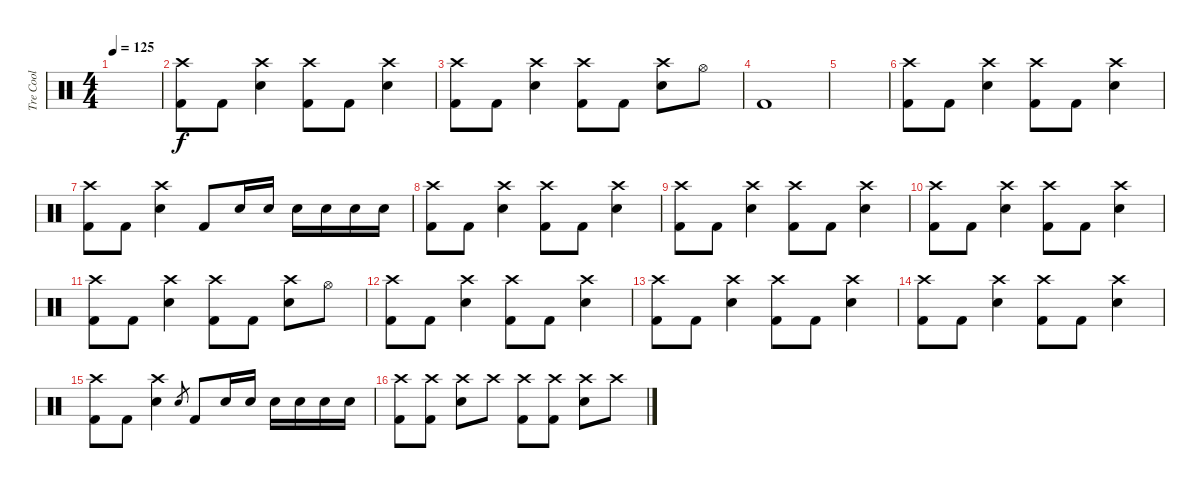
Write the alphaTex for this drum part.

\track ("Tre Cool" "Tre Cool") {instrument percussion}
\staff {score}
\articulation defaults
\ts (4 4)
\tempo 125
\clef neutral
\ks c
|
("Crash high (hit)" "Kick (hit) 2").8 "Kick (hit) 2".8 ("Crash high (hit)" "Electric Snare (hit)").4 ("Crash high (hit)" "Kick (hit) 2").8 "Kick (hit) 2".8 ("Crash high (hit)" "Electric Snare (hit)").4 |
("Crash high (hit)" "Kick (hit) 2").8 "Kick (hit) 2".8 ("Crash high (hit)" "Electric Snare (hit)").4 ("Crash high (hit)" "Kick (hit) 2").8 "Kick (hit) 2".8 ("Crash high (hit)" "Electric Snare (hit)").8 "Hi-Hat (open)".8 |
"Kick (hit) 2".1 |
|
("Crash high (hit)" "Kick (hit) 2").8 "Kick (hit) 2".8 ("Crash high (hit)" "Electric Snare (hit)").4 ("Crash high (hit)" "Kick (hit) 2").8 "Kick (hit) 2".8 ("Crash high (hit)" "Electric Snare (hit)").4 |
("Crash high (hit)" "Kick (hit) 2").8 "Kick (hit) 2".8 ("Crash high (hit)" "Electric Snare (hit)").4 "Kick (hit) 2".8 "Electric Snare (hit)".16 "Electric Snare (hit)".16 "Electric Snare (hit)".16 "Electric Snare (hit)".16 "Electric Snare (hit)".16 "Electric Snare (hit)".16 |
("Crash high (hit)" "Kick (hit) 2").8 "Kick (hit) 2".8 ("Crash high (hit)" "Electric Snare (hit)").4 ("Crash high (hit)" "Kick (hit) 2").8 "Kick (hit) 2".8 ("Crash high (hit)" "Electric Snare (hit)").4 |
("Crash high (hit)" "Kick (hit) 2").8 "Kick (hit) 2".8 ("Crash high (hit)" "Electric Snare (hit)").4 ("Crash high (hit)" "Kick (hit) 2").8 "Kick (hit) 2".8 ("Crash high (hit)" "Electric Snare (hit)").4 |
("Crash high (hit)" "Kick (hit) 2").8 "Kick (hit) 2".8 ("Crash high (hit)" "Electric Snare (hit)").4 ("Crash high (hit)" "Kick (hit) 2").8 "Kick (hit) 2".8 ("Crash high (hit)" "Electric Snare (hit)").4 |
("Crash high (hit)" "Kick (hit) 2").8 "Kick (hit) 2".8 ("Crash high (hit)" "Electric Snare (hit)").4 ("Crash high (hit)" "Kick (hit) 2").8 "Kick (hit) 2".8 ("Crash high (hit)" "Electric Snare (hit)").8 "Hi-Hat (open)".8 |
("Crash high (hit)" "Kick (hit) 2").8 "Kick (hit) 2".8 ("Crash high (hit)" "Electric Snare (hit)").4 ("Crash high (hit)" "Kick (hit) 2").8 "Kick (hit) 2".8 ("Crash high (hit)" "Electric Snare (hit)").4 |
("Crash high (hit)" "Kick (hit) 2").8 "Kick (hit) 2".8 ("Crash high (hit)" "Electric Snare (hit)").4 ("Crash high (hit)" "Kick (hit) 2").8 "Kick (hit) 2".8 ("Crash high (hit)" "Electric Snare (hit)").4 |
("Crash high (hit)" "Kick (hit) 2").8 "Kick (hit) 2".8 ("Crash high (hit)" "Electric Snare (hit)").4 ("Crash high (hit)" "Kick (hit) 2").8 "Kick (hit) 2".8 ("Crash high (hit)" "Electric Snare (hit)").4 |
("Crash high (hit)" "Kick (hit) 2").8 "Kick (hit) 2".8 ("Crash high (hit)" "Electric Snare (hit)").4 "Electric Snare (hit)".8{gr} "Kick (hit) 2".8 "Electric Snare (hit)".16 "Electric Snare (hit)".16 "Electric Snare (hit)".16 "Electric Snare (hit)".16 "Electric Snare (hit)".16 "Electric Snare (hit)".16 |
("Crash high (hit)" "Kick (hit) 2").8 ("Crash high (hit)" "Kick (hit) 2").8 ("Crash high (hit)" "Electric Snare (hit)").8 "Crash high (hit)".8 ("Crash high (hit)" "Kick (hit) 2").8 ("Crash high (hit)" "Kick (hit) 2").8 ("Crash high (hit)" "Electric Snare (hit)").8 "Crash high (hit)".8
